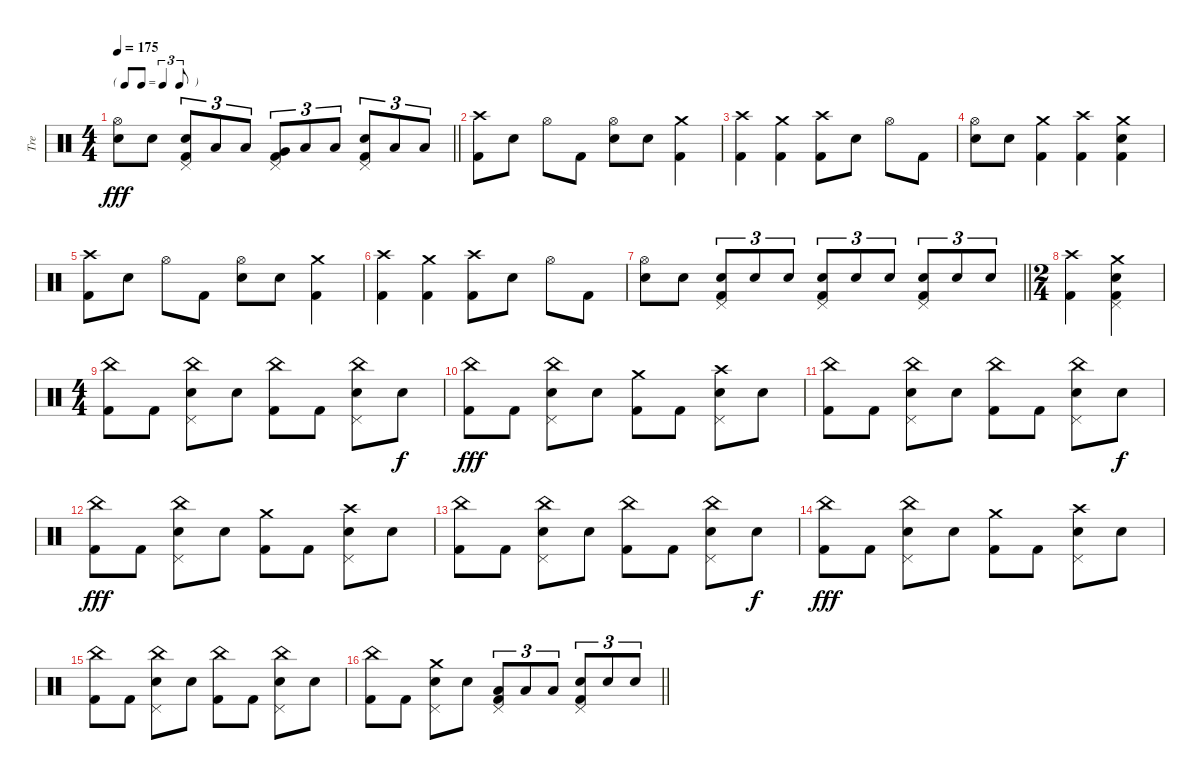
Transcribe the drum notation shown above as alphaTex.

\track ("Tre" "Tre") {instrument percussion}
\staff {score}
\articulation defaults
\ts (4 4)
\tf triplet8th
\tempo 175
\clef neutral
\barLineRight lightlight
\ks c
("Hi-Hat (open)" "Snare (hit) 2").8{dy fff} "Snare (hit) 2".8 ("Snare (hit) 2" "Pedal Hi-Hat (hit)" "Kick (hit) 2").8{tu (3 2)} "Low Tom (hit)".8{tu (3 2)} "Low Tom (hit)".8{tu (3 2)} ("Very Low Tom (hit)" "Pedal Hi-Hat (hit)" "Kick (hit) 2").8{tu (3 2)} "Low Tom (hit)".8{tu (3 2)} "Low Tom (hit)".8{tu (3 2)} ("Snare (hit) 2" "Pedal Hi-Hat (hit)" "Kick (hit) 2").8{tu (3 2)} "Low Tom (hit)".8{tu (3 2)} "Low Tom (hit)".8{tu (3 2)} |
("Crash high (hit)" "Kick (hit) 2").8 "Snare (hit) 2".8 "Hi-Hat (open)".8 "Kick (hit) 2".8 ("Hi-Hat (open)" "Snare (hit) 2").8 "Snare (hit) 2".8 ("Crash medium (hit)" "Kick (hit) 2").4 |
("Crash high (hit)" "Kick (hit) 2").4 ("Crash medium (hit)" "Kick (hit) 2").4 ("Crash high (hit)" "Kick (hit) 2").8 "Snare (hit) 2".8 "Hi-Hat (open)".8 "Kick (hit) 2".8 |
("Hi-Hat (open)" "Snare (hit) 2").8 "Snare (hit) 2".8 ("Crash medium (hit)" "Kick (hit) 2").4 ("Crash high (hit)" "Kick (hit) 2").4 ("Crash medium (hit)" "Snare (hit) 2" "Kick (hit) 2").4 |
("Crash high (hit)" "Kick (hit) 2").8 "Snare (hit) 2".8 "Hi-Hat (open)".8 "Kick (hit) 2".8 ("Hi-Hat (open)" "Snare (hit) 2").8 "Snare (hit) 2".8 ("Crash medium (hit)" "Kick (hit) 2").4 |
("Crash high (hit)" "Kick (hit) 2").4 ("Crash medium (hit)" "Kick (hit) 2").4 ("Crash high (hit)" "Kick (hit) 2").8 "Snare (hit) 2".8 "Hi-Hat (open)".8 "Kick (hit) 2".8 |
\barLineRight lightlight
("Hi-Hat (open)" "Snare (hit) 2").8 "Snare (hit) 2".8 ("Snare (hit) 2" "Pedal Hi-Hat (hit)" "Kick (hit) 2").8{tu (3 2)} "Snare (hit) 2".8{tu (3 2)} "Snare (hit) 2".8{tu (3 2)} ("Snare (hit) 2" "Pedal Hi-Hat (hit)" "Kick (hit) 2").8{tu (3 2)} "Snare (hit) 2".8{tu (3 2)} "Snare (hit) 2".8{tu (3 2)} ("Snare (hit) 2" "Pedal Hi-Hat (hit)" "Kick (hit) 2").8{tu (3 2)} "Snare (hit) 2".8{tu (3 2)} "Snare (hit) 2".8{tu (3 2)} |
\ts (2 4)
("Crash high (hit)" "Kick (hit) 2").4 ("Crash medium (hit)" "Snare (hit) 2" "Pedal Hi-Hat (hit)" "Kick (hit) 2").4 |
\ts (4 4)
("China (hit)" "Kick (hit) 2").8 "Kick (hit) 2".8 ("China (hit)" "Snare (hit) 2" "Pedal Hi-Hat (hit)").8 "Snare (hit) 2".8 ("China (hit)" "Kick (hit) 2").8 "Kick (hit) 2".8 ("China (hit)" "Snare (hit) 2" "Pedal Hi-Hat (hit)").8 "Snare (hit) 2".8{dy f} |
("China (hit)" "Kick (hit) 2").8{dy fff} "Kick (hit) 2".8 ("China (hit)" "Snare (hit) 2" "Pedal Hi-Hat (hit)").8 "Snare (hit) 2".8 ("Crash medium (hit)" "Kick (hit) 2").8 "Kick (hit) 2".8 ("Crash high (hit)" "Snare (hit) 2" "Pedal Hi-Hat (hit)").8 "Snare (hit) 2".8 |
("China (hit)" "Kick (hit) 2").8 "Kick (hit) 2".8 ("China (hit)" "Snare (hit) 2" "Pedal Hi-Hat (hit)").8 "Snare (hit) 2".8 ("China (hit)" "Kick (hit) 2").8 "Kick (hit) 2".8 ("China (hit)" "Snare (hit) 2" "Pedal Hi-Hat (hit)").8 "Snare (hit) 2".8{dy f} |
("China (hit)" "Kick (hit) 2").8{dy fff} "Kick (hit) 2".8 ("China (hit)" "Snare (hit) 2" "Pedal Hi-Hat (hit)").8 "Snare (hit) 2".8 ("Crash medium (hit)" "Kick (hit) 2").8 "Kick (hit) 2".8 ("Crash high (hit)" "Snare (hit) 2" "Pedal Hi-Hat (hit)").8 "Snare (hit) 2".8 |
("China (hit)" "Kick (hit) 2").8 "Kick (hit) 2".8 ("China (hit)" "Snare (hit) 2" "Pedal Hi-Hat (hit)").8 "Snare (hit) 2".8 ("China (hit)" "Kick (hit) 2").8 "Kick (hit) 2".8 ("China (hit)" "Snare (hit) 2" "Pedal Hi-Hat (hit)").8 "Snare (hit) 2".8{dy f} |
("China (hit)" "Kick (hit) 2").8{dy fff} "Kick (hit) 2".8 ("China (hit)" "Snare (hit) 2" "Pedal Hi-Hat (hit)").8 "Snare (hit) 2".8 ("Crash medium (hit)" "Kick (hit) 2").8 "Kick (hit) 2".8 ("Crash high (hit)" "Snare (hit) 2" "Pedal Hi-Hat (hit)").8 "Snare (hit) 2".8 |
("China (hit)" "Kick (hit) 2").8 "Kick (hit) 2".8 ("China (hit)" "Snare (hit) 2" "Pedal Hi-Hat (hit)").8 "Snare (hit) 2".8 ("China (hit)" "Kick (hit) 2").8 "Kick (hit) 2".8 ("China (hit)" "Snare (hit) 2" "Pedal Hi-Hat (hit)").8 "Snare (hit) 2".8 |
\barLineRight lightlight
("China (hit)" "Kick (hit) 2").8 "Kick (hit) 2".8 ("Crash medium (hit)" "Snare (hit) 2" "Pedal Hi-Hat (hit)").8 "Snare (hit) 2".8 ("Low Floor Tom (hit)" "Pedal Hi-Hat (hit)" "Kick (hit) 2").8{tu (3 2)} "Low Floor Tom (hit)".8{tu (3 2)} "Low Floor Tom (hit)".8{tu (3 2)} ("Snare (hit) 2" "Pedal Hi-Hat (hit)" "Kick (hit) 2").8{tu (3 2)} "Snare (hit) 2".8{tu (3 2)} "Snare (hit) 2".8{tu (3 2)}
